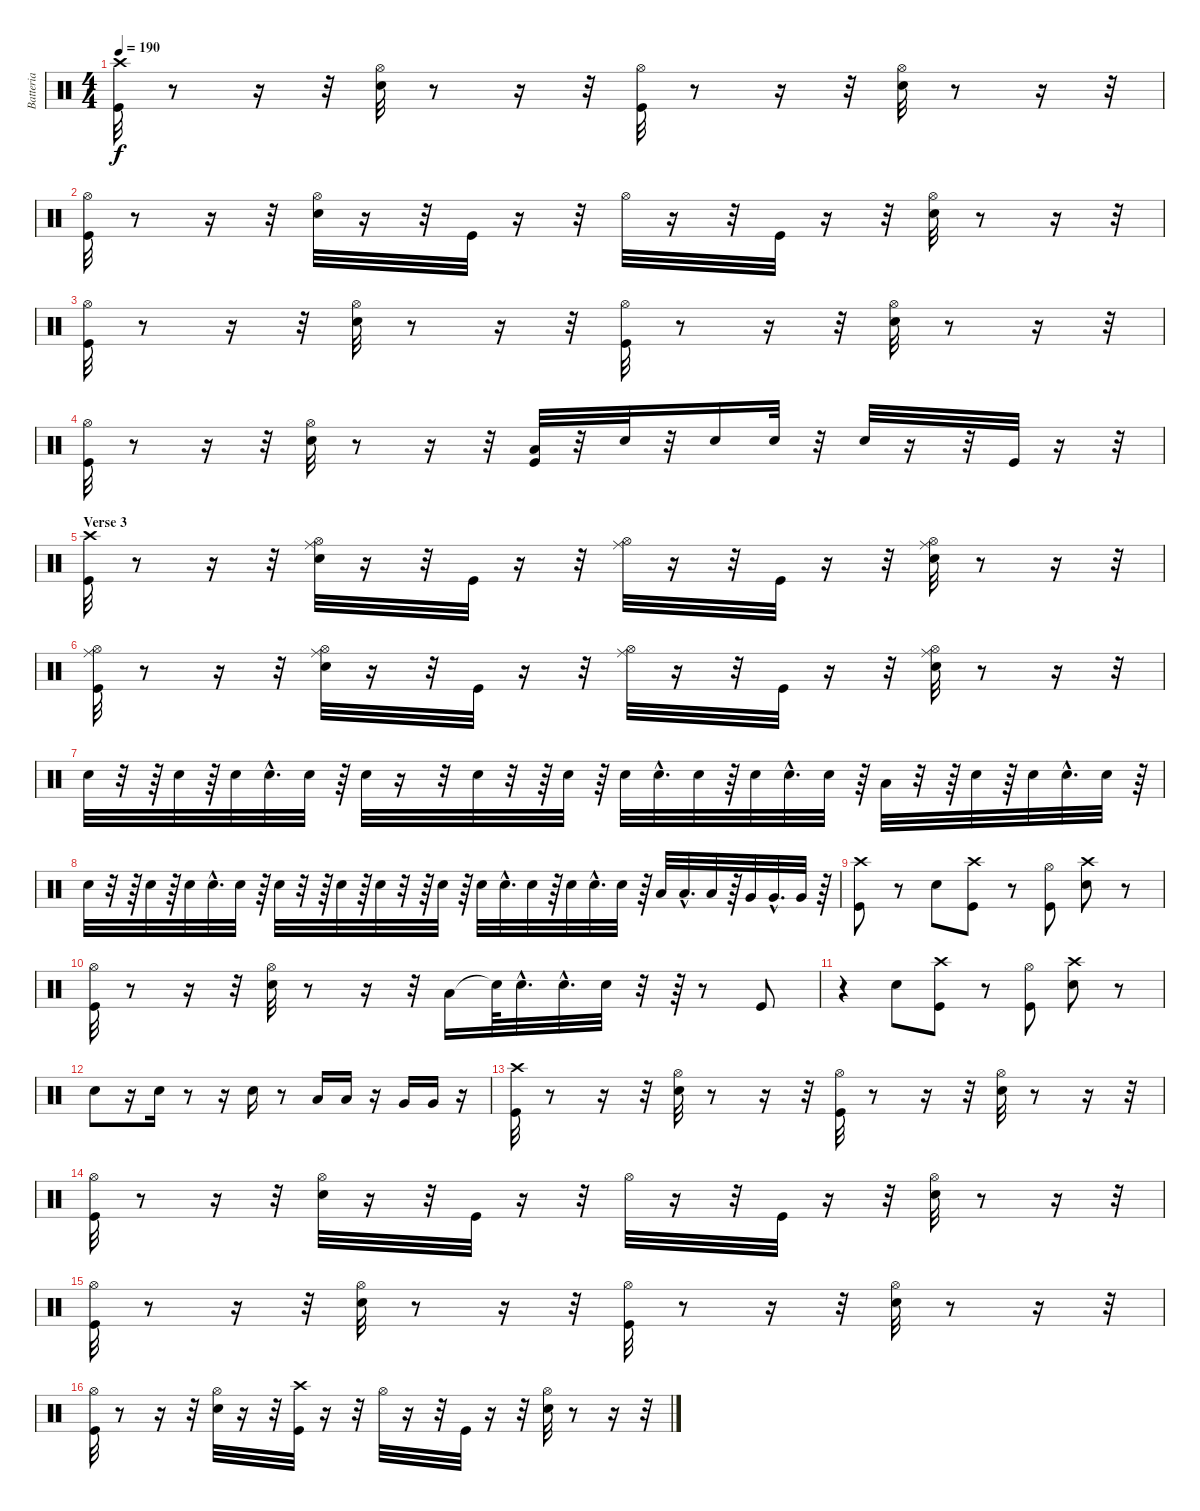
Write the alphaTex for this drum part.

\track ("Batteria" "Batteria") {instrument percussion}
\staff {score}
\articulation defaults
\ts (4 4)
\tempo 190
\clef neutral
\ks c
("Kick (hit)" "Crash high (hit)").32{dy f} r.8 r.16 r.32 ("Hi-Hat (open)" "Snare (hit) 2").32 r.8 r.16 r.32 ("Hi-Hat (open)" "Kick (hit)").32 r.8 r.16 r.32 ("Snare (hit) 2" "Hi-Hat (open)").32 r.8 r.16 r.32 |
("Hi-Hat (open)" "Kick (hit)").32 r.8 r.16 r.32 ("Hi-Hat (open)" "Snare (hit) 2").32 r.16 r.32 "Kick (hit)".32 r.16 r.32 "Hi-Hat (open)".32 r.16 r.32 "Kick (hit)".32 r.16 r.32 ("Hi-Hat (open)" "Snare (hit) 2").32 r.8 r.16 r.32 |
("Kick (hit)" "Hi-Hat (open)").32 r.8 r.16 r.32 ("Hi-Hat (open)" "Snare (hit) 2").32 r.8 r.16 r.32 ("Hi-Hat (open)" "Kick (hit)").32 r.8 r.16 r.32 ("Hi-Hat (open)" "Snare (hit) 2").32 r.8 r.16 r.32 |
("Hi-Hat (open)" "Kick (hit)").32 r.8 r.16 r.32 ("Snare (hit) 2" "Hi-Hat (open)").32 r.8 r.16 r.32 ("Low Tom (hit)" "Kick (hit)").32 r.32 "Snare (hit) 2".32 r.32 "Snare (hit) 2".16 "Snare (hit) 2".32 r.32 "Snare (hit) 2".32 r.16 r.32 "Kick (hit)".32 r.16 r.32 |
\section ("" "Verse 3")
("Crash high (hit)" "Kick (hit)").32 r.8 r.16 r.32 ("Hi-Hat (open)" "Snare (hit) 2" "Ride (middle)").32 r.16 r.32 "Kick (hit)".32 r.16 r.32 ("Hi-Hat (open)" "Ride (middle)").32 r.16 r.32 "Kick (hit)".32 r.16 r.32 ("Hi-Hat (open)" "Snare (hit) 2" "Ride (middle)").32 r.8 r.16 r.32 |
("Hi-Hat (open)" "Ride (middle)" "Kick (hit)").32 r.8 r.16 r.32 ("Hi-Hat (open)" "Snare (hit) 2" "Ride (middle)").32 r.16 r.32 "Kick (hit)".32 r.16 r.32 ("Hi-Hat (open)" "Ride (middle)").32 r.16 r.32 "Kick (hit)".32 r.16 r.32 ("Hi-Hat (open)" "Snare (hit) 2" "Ride (middle)").32 r.8 r.16 r.32 |
"Snare (hit) 2".32 r.32 r.64 "Snare (hit) 2".32 r.64 "Snare (hit) 2".32 "Snare (hit) 2"{hac}.32{d} "Snare (hit) 2".32 r.64 "Snare (hit) 2".32 r.16 r.32 "Snare (hit) 2".32 r.32 r.64 "Snare (hit) 2".32 r.64 "Snare (hit) 2".32 "Snare (hit) 2"{hac}.32{d} "Snare (hit) 2".32 r.64 "Snare (hit) 2".32 "Snare (hit) 2"{hac}.32{d} "Snare (hit) 2".32 r.64 "Low Tom (hit)".32 r.32 r.64 "Snare (hit) 2".32 r.64 "Snare (hit) 2".32 "Snare (hit) 2"{hac}.32{d} "Snare (hit) 2".32 r.64 |
"Snare (hit) 2".32 r.32 r.64 "Snare (hit) 2".32 r.64 "Snare (hit) 2".32 "Snare (hit) 2"{hac}.32{d} "Snare (hit) 2".32 r.64 "Snare (hit) 2".32 r.32 r.64 "Snare (hit) 2".32 r.64 "Snare (hit) 2".32 r.32 r.64 "Snare (hit) 2".32 r.64 "Snare (hit) 2".32 "Snare (hit) 2"{hac}.32{d} "Snare (hit) 2".32 r.64 "Snare (hit) 2".32 "Snare (hit) 2"{hac}.32{d} "Snare (hit) 2".32 r.64 "Low Tom (hit)".32 "Low Tom (hit)"{hac}.32{d} "Low Tom (hit)".32 r.64 "Very Low Tom (hit)".32 "Very Low Tom (hit)"{hac}.32{d} "Very Low Tom (hit)".32 r.64 |
("Kick (hit)" "Crash high (hit)").8 r.8 "Snare (hit) 2".8 ("Kick (hit)" "Crash high (hit)").8 r.8 ("Kick (hit)" "Hi-Hat (open)").8 ("Crash high (hit)" "Snare (hit) 2").8 r.8 |
("Hi-Hat (open)" "Kick (hit)").32 r.8 r.16 r.32 ("Snare (hit) 2" "Hi-Hat (open)").32 r.8 r.16 r.32 "Low Tom (hit)".16 "Snare (hit)"{t}.64 "Snare (hit) 2"{hac}.32{d} "Snare (hit) 2"{hac}.32{d} "Snare (hit) 2".32 r.32 r.64 r.8 "Kick (hit)".8 |
r.4 "Snare (hit) 2".8 ("Kick (hit)" "Crash high (hit)").8 r.8 ("Hi-Hat (open)" "Kick (hit)").8 ("Snare (hit) 2" "Crash high (hit)").8 r.8 |
"Snare (hit) 2".8 r.16 "Snare (hit) 2".16 r.8 r.16 "Snare (hit) 2".16 r.8 "Low Tom (hit)".16 "Low Tom (hit)".16 r.16 "Very Low Tom (hit)".16 "Very Low Tom (hit)".16 r.16 |
("Crash high (hit)" "Kick (hit)").32 r.8 r.16 r.32 ("Snare (hit) 2" "Hi-Hat (open)").32 r.8 r.16 r.32 ("Hi-Hat (open)" "Kick (hit)").32 r.8 r.16 r.32 ("Snare (hit) 2" "Hi-Hat (open)").32 r.8 r.16 r.32 |
("Kick (hit)" "Hi-Hat (open)").32 r.8 r.16 r.32 ("Hi-Hat (open)" "Snare (hit) 2").32 r.16 r.32 "Kick (hit)".32 r.16 r.32 "Hi-Hat (open)".32 r.16 r.32 "Kick (hit)".32 r.16 r.32 ("Hi-Hat (open)" "Snare (hit) 2").32 r.8 r.16 r.32 |
("Hi-Hat (open)" "Kick (hit)").32 r.8 r.16 r.32 ("Snare (hit) 2" "Hi-Hat (open)").32 r.8 r.16 r.32 ("Kick (hit)" "Hi-Hat (open)").32 r.8 r.16 r.32 ("Hi-Hat (open)" "Snare (hit) 2").32 r.8 r.16 r.32 |
("Hi-Hat (open)" "Kick (hit)").32 r.8 r.16 r.32 ("Hi-Hat (open)" "Snare (hit) 2").32 r.16 r.32 ("Crash high (hit)" "Kick (hit)").32 r.16 r.32 "Hi-Hat (open)".32 r.16 r.32 "Kick (hit)".32 r.16 r.32 ("Hi-Hat (open)" "Snare (hit) 2").32 r.8 r.16 r.32
